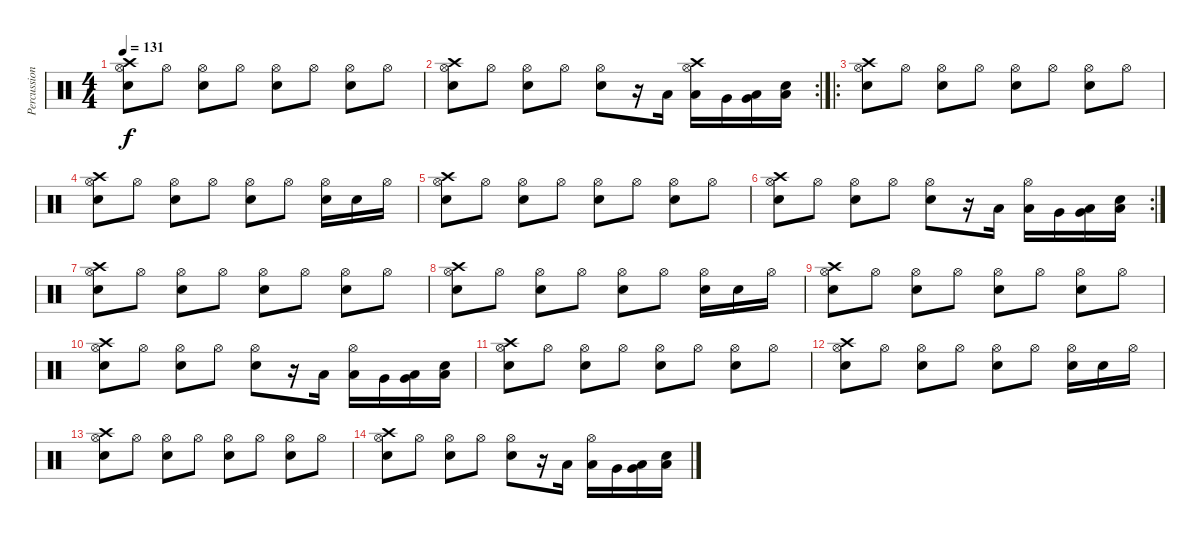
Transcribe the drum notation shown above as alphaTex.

\track ("Percussion" "Percussion") {instrument percussion}
\staff {score}
\articulation defaults
\ts (4 4)
\tempo 131
\clef neutral
\ks c
("Hi-Hat (open)" "Electric Snare (hit)" "Crash high (hit)").8{dy f} "Hi-Hat (open)".8 ("Hi-Hat (open)" "Electric Snare (hit)").8 "Hi-Hat (open)".8 ("Hi-Hat (open)" "Electric Snare (hit)").8 "Hi-Hat (open)".8 ("Hi-Hat (open)" "Electric Snare (hit)").8 "Hi-Hat (open)".8 |
\rc 2
("Hi-Hat (open)" "Electric Snare (hit)" "Crash high (hit)").8 "Hi-Hat (open)".8 ("Hi-Hat (open)" "Electric Snare (hit)").8 "Hi-Hat (open)".8 ("Hi-Hat (open)" "Electric Snare (hit)").8 r.16 "Low Tom (hit)".16 ("Hi-Hat (open)" "Low Tom (hit)" "Crash high (hit)").16 "Very Low Tom (hit)".16 ("Very Low Tom (hit)" "Low Floor Tom (hit)").16 ("Electric Snare (hit)" "Low Floor Tom (hit)").16 |
\ro
("Hi-Hat (open)" "Electric Snare (hit)" "Crash high (hit)").8 "Hi-Hat (open)".8 ("Hi-Hat (open)" "Electric Snare (hit)").8 "Hi-Hat (open)".8 ("Hi-Hat (open)" "Electric Snare (hit)").8 "Hi-Hat (open)".8 ("Hi-Hat (open)" "Electric Snare (hit)").8 "Hi-Hat (open)".8 |
("Hi-Hat (open)" "Electric Snare (hit)" "Crash high (hit)").8 "Hi-Hat (open)".8 ("Hi-Hat (open)" "Electric Snare (hit)").8 "Hi-Hat (open)".8 ("Hi-Hat (open)" "Electric Snare (hit)").8 "Hi-Hat (open)".8 ("Hi-Hat (open)" "Electric Snare (hit)").16 "Electric Snare (hit)".16 "Hi-Hat (open)".16 |
("Hi-Hat (open)" "Electric Snare (hit)" "Crash high (hit)").8 "Hi-Hat (open)".8 ("Hi-Hat (open)" "Electric Snare (hit)").8 "Hi-Hat (open)".8 ("Hi-Hat (open)" "Electric Snare (hit)").8 "Hi-Hat (open)".8 ("Hi-Hat (open)" "Electric Snare (hit)").8 "Hi-Hat (open)".8 |
\rc 2
("Hi-Hat (open)" "Electric Snare (hit)" "Crash high (hit)").8 "Hi-Hat (open)".8 ("Hi-Hat (open)" "Electric Snare (hit)").8 "Hi-Hat (open)".8 ("Hi-Hat (open)" "Electric Snare (hit)").8 r.16 "Low Tom (hit)".16 ("Hi-Hat (open)" "Low Tom (hit)").16 "Very Low Tom (hit)".16 ("Very Low Tom (hit)" "Low Floor Tom (hit)").16 ("Electric Snare (hit)" "Low Floor Tom (hit)").16 |
("Hi-Hat (open)" "Electric Snare (hit)" "Crash high (hit)").8 "Hi-Hat (open)".8 ("Hi-Hat (open)" "Electric Snare (hit)").8 "Hi-Hat (open)".8 ("Hi-Hat (open)" "Electric Snare (hit)").8 "Hi-Hat (open)".8 ("Hi-Hat (open)" "Electric Snare (hit)").8 "Hi-Hat (open)".8 |
("Hi-Hat (open)" "Electric Snare (hit)" "Crash high (hit)").8 "Hi-Hat (open)".8 ("Hi-Hat (open)" "Electric Snare (hit)").8 "Hi-Hat (open)".8 ("Hi-Hat (open)" "Electric Snare (hit)").8 "Hi-Hat (open)".8 ("Hi-Hat (open)" "Electric Snare (hit)").16 "Electric Snare (hit)".16 "Hi-Hat (open)".16 |
("Hi-Hat (open)" "Electric Snare (hit)" "Crash high (hit)").8 "Hi-Hat (open)".8 ("Hi-Hat (open)" "Electric Snare (hit)").8 "Hi-Hat (open)".8 ("Hi-Hat (open)" "Electric Snare (hit)").8 "Hi-Hat (open)".8 ("Hi-Hat (open)" "Electric Snare (hit)").8 "Hi-Hat (open)".8 |
("Hi-Hat (open)" "Electric Snare (hit)" "Crash high (hit)").8 "Hi-Hat (open)".8 ("Hi-Hat (open)" "Electric Snare (hit)").8 "Hi-Hat (open)".8 ("Hi-Hat (open)" "Electric Snare (hit)").8 r.16 "Low Tom (hit)".16 ("Hi-Hat (open)" "Low Tom (hit)").16 "Very Low Tom (hit)".16 ("Very Low Tom (hit)" "Low Floor Tom (hit)").16 ("Electric Snare (hit)" "Low Floor Tom (hit)").16 |
("Hi-Hat (open)" "Electric Snare (hit)" "Crash high (hit)").8 "Hi-Hat (open)".8 ("Hi-Hat (open)" "Electric Snare (hit)").8 "Hi-Hat (open)".8 ("Hi-Hat (open)" "Electric Snare (hit)").8 "Hi-Hat (open)".8 ("Hi-Hat (open)" "Electric Snare (hit)").8 "Hi-Hat (open)".8 |
("Hi-Hat (open)" "Electric Snare (hit)" "Crash high (hit)").8 "Hi-Hat (open)".8 ("Hi-Hat (open)" "Electric Snare (hit)").8 "Hi-Hat (open)".8 ("Hi-Hat (open)" "Electric Snare (hit)").8 "Hi-Hat (open)".8 ("Hi-Hat (open)" "Electric Snare (hit)").16 "Electric Snare (hit)".16 "Hi-Hat (open)".16 |
("Hi-Hat (open)" "Electric Snare (hit)" "Crash high (hit)").8 "Hi-Hat (open)".8 ("Hi-Hat (open)" "Electric Snare (hit)").8 "Hi-Hat (open)".8 ("Hi-Hat (open)" "Electric Snare (hit)").8 "Hi-Hat (open)".8 ("Hi-Hat (open)" "Electric Snare (hit)").8 "Hi-Hat (open)".8 |
("Hi-Hat (open)" "Electric Snare (hit)" "Crash high (hit)").8 "Hi-Hat (open)".8 ("Hi-Hat (open)" "Electric Snare (hit)").8 "Hi-Hat (open)".8 ("Hi-Hat (open)" "Electric Snare (hit)").8 r.16 "Low Tom (hit)".16 ("Hi-Hat (open)" "Low Tom (hit)").16 "Very Low Tom (hit)".16 ("Very Low Tom (hit)" "Low Floor Tom (hit)").16 ("Electric Snare (hit)" "Low Floor Tom (hit)").16
